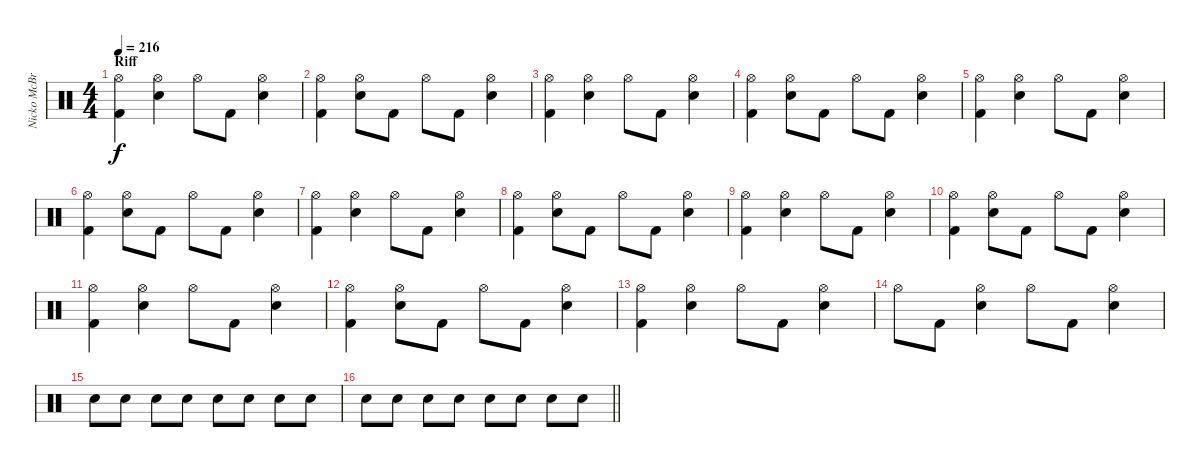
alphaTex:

\track ("Nicko McBrain" "Nicko McBr") {instrument percussion}
\staff {score}
\articulation defaults
\ts (4 4)
\section ("" "Riff")
\tempo 216
\clef neutral
\ks c
("Hi-Hat (open)" "Kick (hit) 2").4{dy f} ("Hi-Hat (open)" "Snare (hit) 2").4 "Hi-Hat (open)".8 "Kick (hit) 2".8 ("Hi-Hat (open)" "Snare (hit) 2").4 |
("Hi-Hat (open)" "Kick (hit) 2").4 ("Hi-Hat (open)" "Snare (hit) 2").8 "Kick (hit) 2".8 "Hi-Hat (open)".8 "Kick (hit) 2".8 ("Hi-Hat (open)" "Snare (hit) 2").4 |
("Hi-Hat (open)" "Kick (hit) 2").4 ("Hi-Hat (open)" "Snare (hit) 2").4 "Hi-Hat (open)".8 "Kick (hit) 2".8 ("Hi-Hat (open)" "Snare (hit) 2").4 |
("Hi-Hat (open)" "Kick (hit) 2").4 ("Hi-Hat (open)" "Snare (hit) 2").8 "Kick (hit) 2".8 "Hi-Hat (open)".8 "Kick (hit) 2".8 ("Hi-Hat (open)" "Snare (hit) 2").4 |
("Hi-Hat (open)" "Kick (hit) 2").4 ("Hi-Hat (open)" "Snare (hit) 2").4 "Hi-Hat (open)".8 "Kick (hit) 2".8 ("Hi-Hat (open)" "Snare (hit) 2").4 |
("Hi-Hat (open)" "Kick (hit) 2").4 ("Hi-Hat (open)" "Snare (hit) 2").8 "Kick (hit) 2".8 "Hi-Hat (open)".8 "Kick (hit) 2".8 ("Hi-Hat (open)" "Snare (hit) 2").4 |
("Hi-Hat (open)" "Kick (hit) 2").4 ("Hi-Hat (open)" "Snare (hit) 2").4 "Hi-Hat (open)".8 "Kick (hit) 2".8 ("Hi-Hat (open)" "Snare (hit) 2").4 |
("Hi-Hat (open)" "Kick (hit) 2").4 ("Hi-Hat (open)" "Snare (hit) 2").8 "Kick (hit) 2".8 "Hi-Hat (open)".8 "Kick (hit) 2".8 ("Hi-Hat (open)" "Snare (hit) 2").4 |
("Hi-Hat (open)" "Kick (hit) 2").4 ("Hi-Hat (open)" "Snare (hit) 2").4 "Hi-Hat (open)".8 "Kick (hit) 2".8 ("Hi-Hat (open)" "Snare (hit) 2").4 |
("Hi-Hat (open)" "Kick (hit) 2").4 ("Hi-Hat (open)" "Snare (hit) 2").8 "Kick (hit) 2".8 "Hi-Hat (open)".8 "Kick (hit) 2".8 ("Hi-Hat (open)" "Snare (hit) 2").4 |
("Hi-Hat (open)" "Kick (hit) 2").4 ("Hi-Hat (open)" "Snare (hit) 2").4 "Hi-Hat (open)".8 "Kick (hit) 2".8 ("Hi-Hat (open)" "Snare (hit) 2").4 |
("Hi-Hat (open)" "Kick (hit) 2").4 ("Hi-Hat (open)" "Snare (hit) 2").8 "Kick (hit) 2".8 "Hi-Hat (open)".8 "Kick (hit) 2".8 ("Hi-Hat (open)" "Snare (hit) 2").4 |
("Hi-Hat (open)" "Kick (hit) 2").4 ("Hi-Hat (open)" "Snare (hit) 2").4 "Hi-Hat (open)".8 "Kick (hit) 2".8 ("Hi-Hat (open)" "Snare (hit) 2").4 |
"Hi-Hat (open)".8 "Kick (hit) 2".8 ("Hi-Hat (open)" "Snare (hit) 2").4 "Hi-Hat (open)".8 "Kick (hit) 2".8 ("Hi-Hat (open)" "Snare (hit) 2").4 |
"Snare (hit) 2".8 "Snare (hit) 2".8 "Snare (hit) 2".8 "Snare (hit) 2".8 "Snare (hit) 2".8 "Snare (hit) 2".8 "Snare (hit) 2".8 "Snare (hit) 2".8 |
\barLineRight lightlight "Snare (hit) 2".8 "Snare (hit) 2".8 "Snare (hit) 2".8 "Snare (hit) 2".8 "Snare (hit) 2".8 "Snare (hit) 2".8 "Snare (hit) 2".8 "Snare (hit) 2".8
